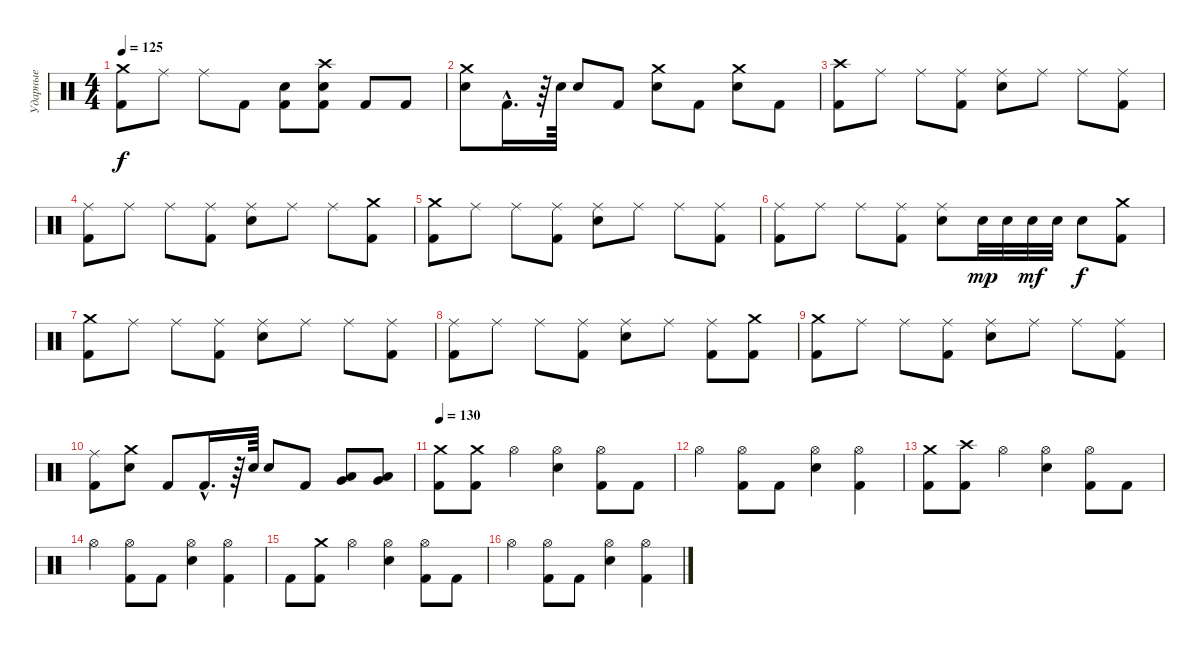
\track ("Ударные" "Ударные") {instrument percussion}
\staff {score}
\articulation defaults
\ts (4 4)
\tempo 125
\clef neutral
\ks c
("Crash medium (hit)" "Kick (hit) 2").8{dy f} "Ride (middle)".8 "Ride (middle)".8 "Kick (hit) 2".8 ("Electric Snare (hit)" "Kick (hit) 2").8 ("Crash high (hit)" "Electric Snare (hit)" "Kick (hit) 2").8 "Kick (hit) 2".8 "Kick (hit) 2".8 |
("Crash medium (hit)" "Electric Snare (hit)").8 "Kick (hit) 2"{hac}.16{d} r.64 "Electric Snare (hit)".64 "Electric Snare (hit)".8 "Kick (hit) 2".8 ("Crash medium (hit)" "Electric Snare (hit)").8 "Kick (hit) 2".8 ("Crash medium (hit)" "Electric Snare (hit)").8 "Kick (hit) 2".8 |
("Crash high (hit)" "Kick (hit) 2").8 "Ride (middle)".8 "Ride (middle)".8 ("Ride (middle)" "Kick (hit) 2").8 ("Ride (middle)" "Electric Snare (hit)").8 "Ride (middle)".8 "Ride (middle)".8 ("Ride (middle)" "Kick (hit) 2").8 |
("Ride (middle)" "Kick (hit) 2").8 "Ride (middle)".8 "Ride (middle)".8 ("Ride (middle)" "Kick (hit) 2").8 ("Ride (middle)" "Electric Snare (hit)").8 "Ride (middle)".8 "Ride (middle)".8 ("Crash medium (hit)" "Kick (hit) 2").8 |
("Crash medium (hit)" "Kick (hit) 2").8 "Ride (middle)".8 "Ride (middle)".8 ("Ride (middle)" "Kick (hit) 2").8 ("Ride (middle)" "Electric Snare (hit)").8 "Ride (middle)".8 "Ride (middle)".8 ("Ride (middle)" "Kick (hit) 2").8 |
("Ride (middle)" "Kick (hit) 2").8 "Ride (middle)".8 "Ride (middle)".8 ("Ride (middle)" "Kick (hit) 2").8 ("Ride (middle)" "Electric Snare (hit)").8 "Electric Snare (hit)".32{dy mp} "Electric Snare (hit)".32 "Electric Snare (hit)".32{dy mf} "Electric Snare (hit)".32 "Electric Snare (hit)".8{dy f} ("Crash medium (hit)" "Kick (hit) 2").8 |
("Crash medium (hit)" "Kick (hit) 2").8 "Ride (middle)".8 "Ride (middle)".8 ("Ride (middle)" "Kick (hit) 2").8 ("Ride (middle)" "Electric Snare (hit)").8 "Ride (middle)".8 "Ride (middle)".8 ("Ride (middle)" "Kick (hit) 2").8 |
("Ride (middle)" "Kick (hit) 2").8 "Ride (middle)".8 "Ride (middle)".8 ("Ride (middle)" "Kick (hit) 2").8 ("Ride (middle)" "Electric Snare (hit)").8 "Ride (middle)".8 ("Ride (middle)" "Kick (hit) 2").8 ("Crash medium (hit)" "Kick (hit) 2").8 |
("Crash medium (hit)" "Kick (hit) 2").8 "Ride (middle)".8 "Ride (middle)".8 ("Ride (middle)" "Kick (hit) 2").8 ("Ride (middle)" "Electric Snare (hit)").8 "Ride (middle)".8 "Ride (middle)".8 ("Ride (middle)" "Kick (hit) 2").8 |
("Ride (middle)" "Kick (hit) 2").8 ("Crash medium (hit)" "Electric Snare (hit)").8 "Kick (hit) 2".8 "Kick (hit) 2"{hac}.16{d} r.64 "Electric Snare (hit)".64 "Electric Snare (hit)".8 "Kick (hit) 2".8 ("Very Low Tom (hit)" "Low Tom (hit)").8 ("Very Low Tom (hit)" "Low Floor Tom (hit)").8 |
\tempo 130
("Crash medium (hit)" "Kick (hit) 2").8 ("Crash medium (hit)" "Kick (hit) 2").8 "Hi-Hat (open)".4 ("Hi-Hat (open)" "Electric Snare (hit)").4 ("Hi-Hat (open)" "Kick (hit) 2").8 "Kick (hit) 2".8 |
"Hi-Hat (open)".4 ("Hi-Hat (open)" "Kick (hit) 2").8 "Kick (hit) 2".8 ("Hi-Hat (open)" "Electric Snare (hit)").4 ("Hi-Hat (open)" "Kick (hit) 2").4 |
("Crash medium (hit)" "Kick (hit) 2").8 ("Crash high (hit)" "Kick (hit) 2").8 "Hi-Hat (open)".4 ("Hi-Hat (open)" "Electric Snare (hit)").4 ("Hi-Hat (open)" "Kick (hit) 2").8 "Kick (hit) 2".8 |
"Hi-Hat (open)".4 ("Hi-Hat (open)" "Kick (hit) 2").8 "Kick (hit) 2".8 ("Hi-Hat (open)" "Electric Snare (hit)").4 ("Hi-Hat (open)" "Kick (hit) 2").4 |
"Kick (hit) 2".8 ("Crash medium (hit)" "Kick (hit) 2").8 "Hi-Hat (open)".4 ("Hi-Hat (open)" "Electric Snare (hit)").4 ("Hi-Hat (open)" "Kick (hit) 2").8 "Kick (hit) 2".8 |
"Hi-Hat (open)".4 ("Hi-Hat (open)" "Kick (hit) 2").8 "Kick (hit) 2".8 ("Hi-Hat (open)" "Electric Snare (hit)").4 ("Hi-Hat (open)" "Kick (hit) 2").4
